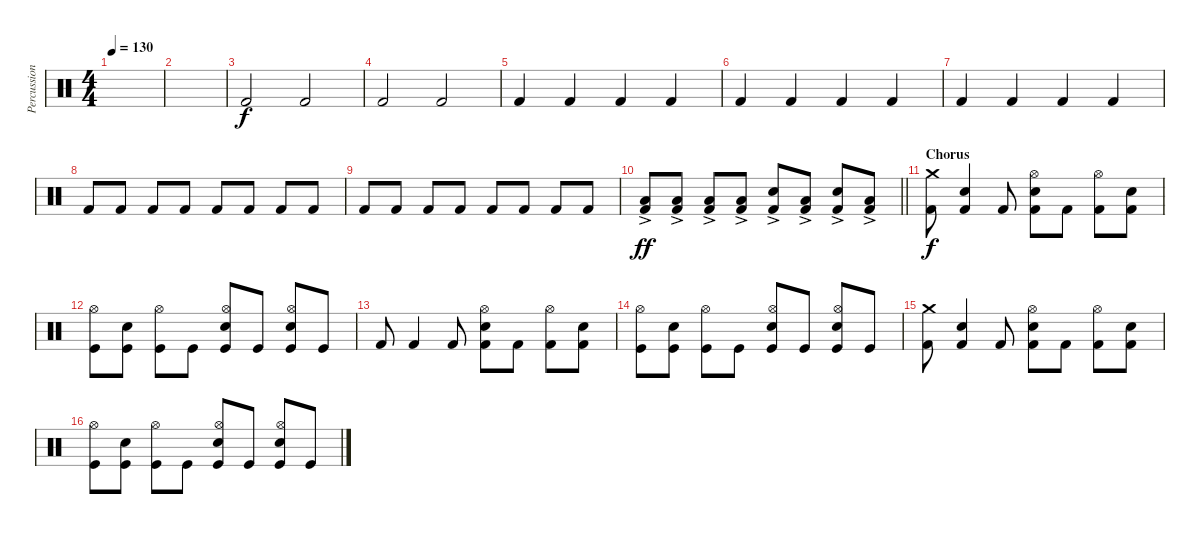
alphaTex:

\track ("Percussion" "Percussion") {instrument percussion}
\staff {score}
\articulation defaults
\ts (4 4)
\tempo 130
\clef neutral
\ks c
|
|
"Kick (hit) 2".2 "Kick (hit) 2".2 |
"Kick (hit) 2".2 "Kick (hit) 2".2 |
"Kick (hit) 2".4 "Kick (hit) 2".4 "Kick (hit) 2".4 "Kick (hit) 2".4 |
"Kick (hit) 2".4 "Kick (hit) 2".4 "Kick (hit) 2".4 "Kick (hit) 2".4 |
"Kick (hit) 2".4 "Kick (hit) 2".4 "Kick (hit) 2".4 "Kick (hit) 2".4 |
"Kick (hit) 2".8 "Kick (hit) 2".8 "Kick (hit) 2".8 "Kick (hit) 2".8 "Kick (hit) 2".8 "Kick (hit) 2".8 "Kick (hit) 2".8 "Kick (hit) 2".8 |
"Kick (hit) 2".8 "Kick (hit) 2".8 "Kick (hit) 2".8 "Kick (hit) 2".8 "Kick (hit) 2".8 "Kick (hit) 2".8 "Kick (hit) 2".8 "Kick (hit) 2".8 |
\barLineRight lightlight
("Low Floor Tom (hit)"{ac} "Kick (hit) 2").8{dy ff} ("Low Floor Tom (hit)"{ac} "Kick (hit) 2").8 ("Low Floor Tom (hit)"{ac} "Kick (hit) 2").8 ("Low Floor Tom (hit)"{ac} "Kick (hit) 2").8 ("Snare (hit) 2"{ac} "Kick (hit) 2").8 ("Low Floor Tom (hit)"{ac} "Kick (hit) 2").8 ("Snare (hit) 2"{ac} "Kick (hit) 2").8 ("Low Floor Tom (hit)"{ac} "Kick (hit) 2").8 |
\section ("" "Chorus")
("Crash medium (hit)" "Kick (hit) 2").8{dy f} ("Snare (hit) 2" "Kick (hit) 2").4 "Kick (hit) 2".8 ("Hi-Hat (open)" "Snare (hit) 2" "Kick (hit) 2").8 "Kick (hit) 2".8 ("Hi-Hat (open)" "Kick (hit) 2").8 ("Snare (hit) 2" "Kick (hit) 2").8 |
("Hi-Hat (open)" "Kick (hit)").8 ("Snare (hit) 2" "Kick (hit)").8 ("Hi-Hat (open)" "Kick (hit)").8 "Kick (hit)".8 ("Hi-Hat (open)" "Snare (hit) 2" "Kick (hit)").8 "Kick (hit)".8 ("Hi-Hat (open)" "Snare (hit) 2" "Kick (hit)").8 "Kick (hit)".8 |
"Kick (hit) 2".8 "Kick (hit) 2".4 "Kick (hit) 2".8 ("Hi-Hat (open)" "Snare (hit) 2" "Kick (hit) 2").8 "Kick (hit) 2".8 ("Hi-Hat (open)" "Kick (hit) 2").8 ("Snare (hit) 2" "Kick (hit) 2").8 |
("Hi-Hat (open)" "Kick (hit)").8 ("Snare (hit) 2" "Kick (hit)").8 ("Hi-Hat (open)" "Kick (hit)").8 "Kick (hit)".8 ("Hi-Hat (open)" "Snare (hit) 2" "Kick (hit)").8 "Kick (hit)".8 ("Hi-Hat (open)" "Snare (hit) 2" "Kick (hit)").8 "Kick (hit)".8 |
("Crash medium (hit)" "Kick (hit) 2").8 ("Snare (hit) 2" "Kick (hit) 2").4 "Kick (hit) 2".8 ("Hi-Hat (open)" "Snare (hit) 2" "Kick (hit) 2").8 "Kick (hit) 2".8 ("Hi-Hat (open)" "Kick (hit) 2").8 ("Snare (hit) 2" "Kick (hit) 2").8 |
("Hi-Hat (open)" "Kick (hit)").8 ("Snare (hit) 2" "Kick (hit)").8 ("Hi-Hat (open)" "Kick (hit)").8 "Kick (hit)".8 ("Hi-Hat (open)" "Snare (hit) 2" "Kick (hit)").8 "Kick (hit)".8 ("Hi-Hat (open)" "Snare (hit) 2" "Kick (hit)").8 "Kick (hit)".8
